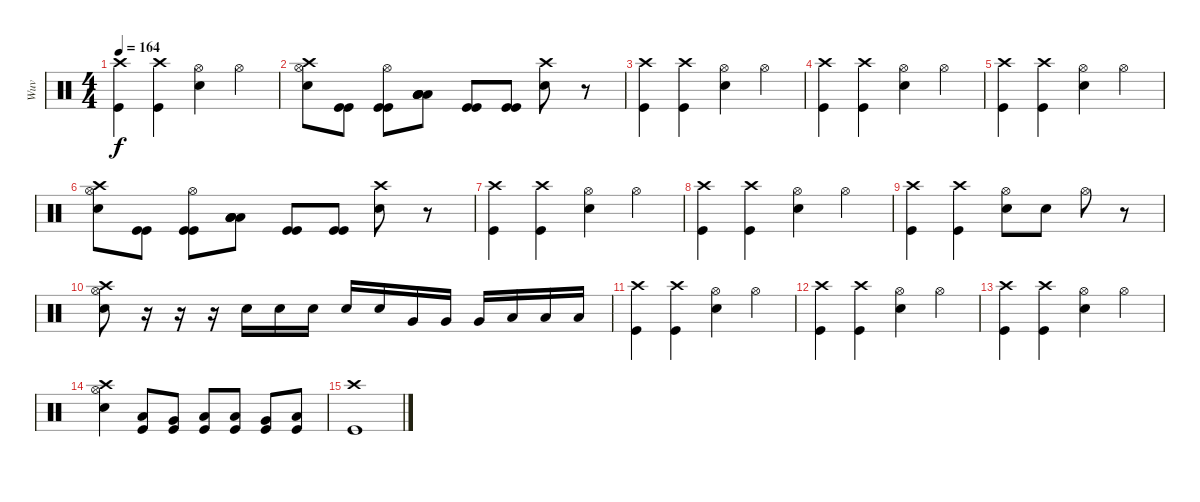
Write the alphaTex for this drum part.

\track ("Wuv" "Wuv") {instrument percussion}
\staff {score}
\articulation defaults
\ts (4 4)
\tempo 164
\clef neutral
\ks c
("Crash high (hit)" "Kick (hit)").4{dy f} ("Crash high (hit)" "Kick (hit)").4 ("Hi-Hat (open)" "Snare (hit) 2").4 "Hi-Hat (open)".4 |
("Hi-Hat (open)" "Crash high (hit)" "Snare (hit) 2").8 ("Kick (hit)" "Kick (hit)").8 ("Hi-Hat (open)" "Kick (hit)" "Kick (hit)").8 ("Low Floor Tom (hit)" "Low Floor Tom (hit)" "Low Floor Tom (hit)" "Low Floor Tom (hit)").8 ("Kick (hit)" "Kick (hit)").8 ("Kick (hit)" "Kick (hit)").8 ("Crash high (hit)" "Snare (hit) 2").8 r.8 |
("Crash high (hit)" "Kick (hit)").4 ("Crash high (hit)" "Kick (hit)").4 ("Hi-Hat (open)" "Snare (hit) 2").4 "Hi-Hat (open)".4 |
("Crash high (hit)" "Kick (hit)").4 ("Crash high (hit)" "Kick (hit)").4 ("Hi-Hat (open)" "Snare (hit) 2").4 "Hi-Hat (open)".4 |
("Crash high (hit)" "Kick (hit)").4 ("Crash high (hit)" "Kick (hit)").4 ("Hi-Hat (open)" "Snare (hit) 2").4 "Hi-Hat (open)".4 |
("Hi-Hat (open)" "Crash high (hit)" "Snare (hit) 2").8 ("Kick (hit)" "Kick (hit)").8 ("Hi-Hat (open)" "Kick (hit)" "Kick (hit)").8 ("Low Floor Tom (hit)" "Low Floor Tom (hit)" "Low Floor Tom (hit)" "Low Floor Tom (hit)").8 ("Kick (hit)" "Kick (hit)").8 ("Kick (hit)" "Kick (hit)").8 ("Crash high (hit)" "Snare (hit) 2").8 r.8 |
("Crash high (hit)" "Kick (hit)").4 ("Crash high (hit)" "Kick (hit)").4 ("Hi-Hat (open)" "Snare (hit) 2").4 "Hi-Hat (open)".4 |
("Crash high (hit)" "Kick (hit)").4 ("Crash high (hit)" "Kick (hit)").4 ("Hi-Hat (open)" "Snare (hit) 2").4 "Hi-Hat (open)".4 |
("Crash high (hit)" "Kick (hit)").4 ("Crash high (hit)" "Kick (hit)").4 ("Hi-Hat (open)" "Snare (hit) 2").8 "Snare (hit) 2".8 "Hi-Hat (open)".8 r.8 |
("Hi-Hat (open)" "Crash high (hit)" "Snare (hit) 2").8 r.16 r.16 r.16 "Snare (hit) 2".16 "Snare (hit) 2".16 "Snare (hit) 2".16 "Snare (hit) 2".16 "Snare (hit) 2".16 "Very Low Tom (hit)".16 "Very Low Tom (hit)".16 "Very Low Tom (hit)".16 "Low Floor Tom (hit)".16 "Low Floor Tom (hit)".16 "Low Floor Tom (hit)".16 |
("Crash high (hit)" "Kick (hit)").4 ("Crash high (hit)" "Kick (hit)").4 ("Hi-Hat (open)" "Snare (hit) 2").4 "Hi-Hat (open)".4 |
("Crash high (hit)" "Kick (hit)").4 ("Crash high (hit)" "Kick (hit)").4 ("Hi-Hat (open)" "Snare (hit) 2").4 "Hi-Hat (open)".4 |
("Crash high (hit)" "Kick (hit)").4 ("Crash high (hit)" "Kick (hit)").4 ("Hi-Hat (open)" "Snare (hit) 2").4 "Hi-Hat (open)".4 |
("Hi-Hat (open)" "Crash high (hit)" "Snare (hit) 2").4 ("Low Tom (hit)" "Kick (hit)").8 ("Very Low Tom (hit)" "Kick (hit)").8 ("Low Floor Tom (hit)" "Kick (hit)").8 ("Low Tom (hit)" "Kick (hit)").8 ("Very Low Tom (hit)" "Kick (hit)").8 ("Low Floor Tom (hit)" "Kick (hit)").8 |
("Crash high (hit)" "Kick (hit)").1
